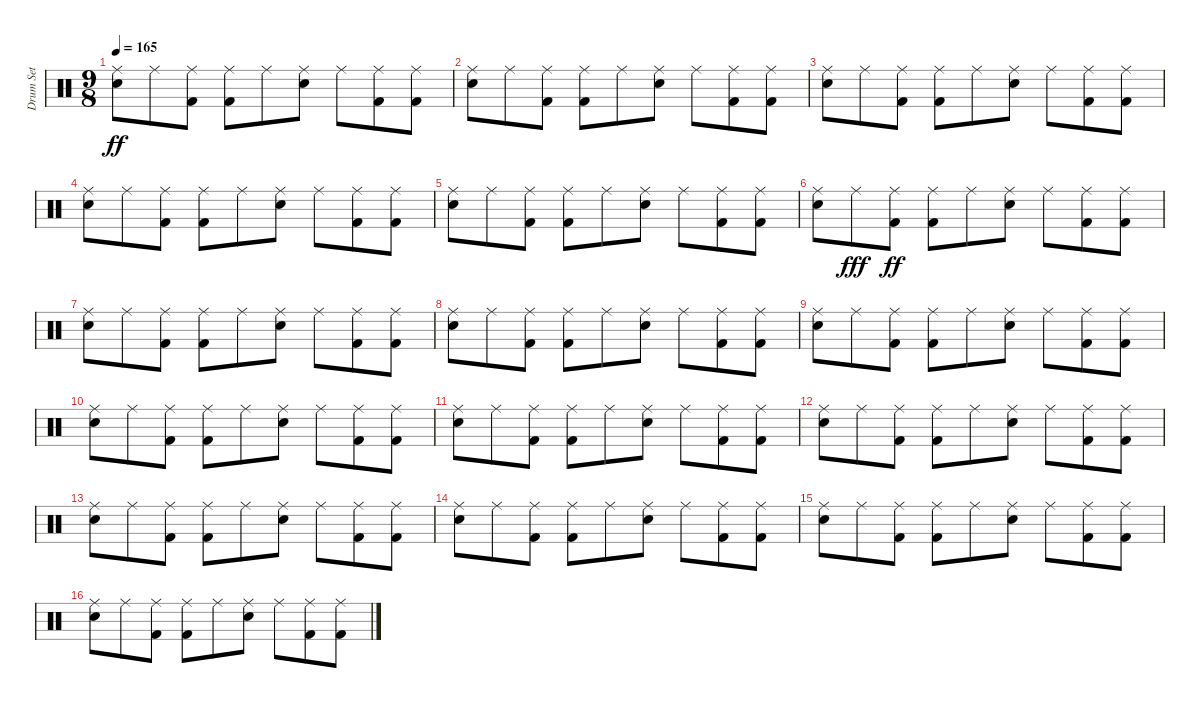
\track ("Drum Set" "Drum Set") {instrument percussion}
\staff {score}
\articulation defaults
\ts (9 8)
\tempo 165
\clef neutral
\ks c
("Snare (hit) 2" "Ride (middle)").8{dy ff} "Ride (middle)".8 ("Kick (hit) 2" "Ride (middle)").8 ("Kick (hit) 2" "Ride (middle)").8 "Ride (middle)".8 ("Snare (hit) 2" "Ride (middle)").8 "Ride (middle)".8 ("Kick (hit) 2" "Ride (middle)").8 ("Kick (hit) 2" "Ride (middle)").8 |
("Snare (hit) 2" "Ride (middle)").8 "Ride (middle)".8 ("Kick (hit) 2" "Ride (middle)").8 ("Kick (hit) 2" "Ride (middle)").8 "Ride (middle)".8 ("Snare (hit) 2" "Ride (middle)").8 "Ride (middle)".8 ("Kick (hit) 2" "Ride (middle)").8 ("Kick (hit) 2" "Ride (middle)").8 |
("Snare (hit) 2" "Ride (middle)").8 "Ride (middle)".8 ("Kick (hit) 2" "Ride (middle)").8 ("Kick (hit) 2" "Ride (middle)").8 "Ride (middle)".8 ("Snare (hit) 2" "Ride (middle)").8 "Ride (middle)".8 ("Kick (hit) 2" "Ride (middle)").8 ("Kick (hit) 2" "Ride (middle)").8 |
("Snare (hit) 2" "Ride (middle)").8 "Ride (middle)".8 ("Kick (hit) 2" "Ride (middle)").8 ("Kick (hit) 2" "Ride (middle)").8 "Ride (middle)".8 ("Snare (hit) 2" "Ride (middle)").8 "Ride (middle)".8 ("Kick (hit) 2" "Ride (middle)").8 ("Kick (hit) 2" "Ride (middle)").8 |
("Snare (hit) 2" "Ride (middle)").8 "Ride (middle)".8 ("Kick (hit) 2" "Ride (middle)").8 ("Kick (hit) 2" "Ride (middle)").8 "Ride (middle)".8 ("Snare (hit) 2" "Ride (middle)").8 "Ride (middle)".8 ("Kick (hit) 2" "Ride (middle)").8 ("Kick (hit) 2" "Ride (middle)").8 |
("Snare (hit) 2" "Ride (middle)").8 "Ride (middle)".8{dy fff} ("Kick (hit) 2" "Ride (middle)").8{dy ff} ("Kick (hit) 2" "Ride (middle)").8 "Ride (middle)".8 ("Snare (hit) 2" "Ride (middle)").8 "Ride (middle)".8 ("Kick (hit) 2" "Ride (middle)").8 ("Kick (hit) 2" "Ride (middle)").8 |
("Snare (hit) 2" "Ride (middle)").8 "Ride (middle)".8 ("Kick (hit) 2" "Ride (middle)").8 ("Kick (hit) 2" "Ride (middle)").8 "Ride (middle)".8 ("Snare (hit) 2" "Ride (middle)").8 "Ride (middle)".8 ("Kick (hit) 2" "Ride (middle)").8 ("Kick (hit) 2" "Ride (middle)").8 |
("Snare (hit) 2" "Ride (middle)").8 "Ride (middle)".8 ("Kick (hit) 2" "Ride (middle)").8 ("Kick (hit) 2" "Ride (middle)").8 "Ride (middle)".8 ("Snare (hit) 2" "Ride (middle)").8 "Ride (middle)".8 ("Kick (hit) 2" "Ride (middle)").8 ("Kick (hit) 2" "Ride (middle)").8 |
("Snare (hit) 2" "Ride (middle)").8 "Ride (middle)".8 ("Kick (hit) 2" "Ride (middle)").8 ("Kick (hit) 2" "Ride (middle)").8 "Ride (middle)".8 ("Snare (hit) 2" "Ride (middle)").8 "Ride (middle)".8 ("Kick (hit) 2" "Ride (middle)").8 ("Kick (hit) 2" "Ride (middle)").8 |
("Snare (hit) 2" "Ride (middle)").8 "Ride (middle)".8 ("Kick (hit) 2" "Ride (middle)").8 ("Kick (hit) 2" "Ride (middle)").8 "Ride (middle)".8 ("Snare (hit) 2" "Ride (middle)").8 "Ride (middle)".8 ("Kick (hit) 2" "Ride (middle)").8 ("Kick (hit) 2" "Ride (middle)").8 |
("Snare (hit) 2" "Ride (middle)").8 "Ride (middle)".8 ("Kick (hit) 2" "Ride (middle)").8 ("Kick (hit) 2" "Ride (middle)").8 "Ride (middle)".8 ("Snare (hit) 2" "Ride (middle)").8 "Ride (middle)".8 ("Kick (hit) 2" "Ride (middle)").8 ("Kick (hit) 2" "Ride (middle)").8 |
("Snare (hit) 2" "Ride (middle)").8 "Ride (middle)".8 ("Kick (hit) 2" "Ride (middle)").8 ("Kick (hit) 2" "Ride (middle)").8 "Ride (middle)".8 ("Snare (hit) 2" "Ride (middle)").8 "Ride (middle)".8 ("Kick (hit) 2" "Ride (middle)").8 ("Kick (hit) 2" "Ride (middle)").8 |
("Snare (hit) 2" "Ride (middle)").8 "Ride (middle)".8 ("Kick (hit) 2" "Ride (middle)").8 ("Kick (hit) 2" "Ride (middle)").8 "Ride (middle)".8 ("Snare (hit) 2" "Ride (middle)").8 "Ride (middle)".8 ("Kick (hit) 2" "Ride (middle)").8 ("Kick (hit) 2" "Ride (middle)").8 |
("Snare (hit) 2" "Ride (middle)").8 "Ride (middle)".8 ("Kick (hit) 2" "Ride (middle)").8 ("Kick (hit) 2" "Ride (middle)").8 "Ride (middle)".8 ("Snare (hit) 2" "Ride (middle)").8 "Ride (middle)".8 ("Kick (hit) 2" "Ride (middle)").8 ("Kick (hit) 2" "Ride (middle)").8 |
("Snare (hit) 2" "Ride (middle)").8 "Ride (middle)".8 ("Kick (hit) 2" "Ride (middle)").8 ("Kick (hit) 2" "Ride (middle)").8 "Ride (middle)".8 ("Snare (hit) 2" "Ride (middle)").8 "Ride (middle)".8 ("Kick (hit) 2" "Ride (middle)").8 ("Kick (hit) 2" "Ride (middle)").8 |
("Snare (hit) 2" "Ride (middle)").8 "Ride (middle)".8 ("Kick (hit) 2" "Ride (middle)").8 ("Kick (hit) 2" "Ride (middle)").8 "Ride (middle)".8 ("Snare (hit) 2" "Ride (middle)").8 "Ride (middle)".8 ("Kick (hit) 2" "Ride (middle)").8 ("Kick (hit) 2" "Ride (middle)").8
